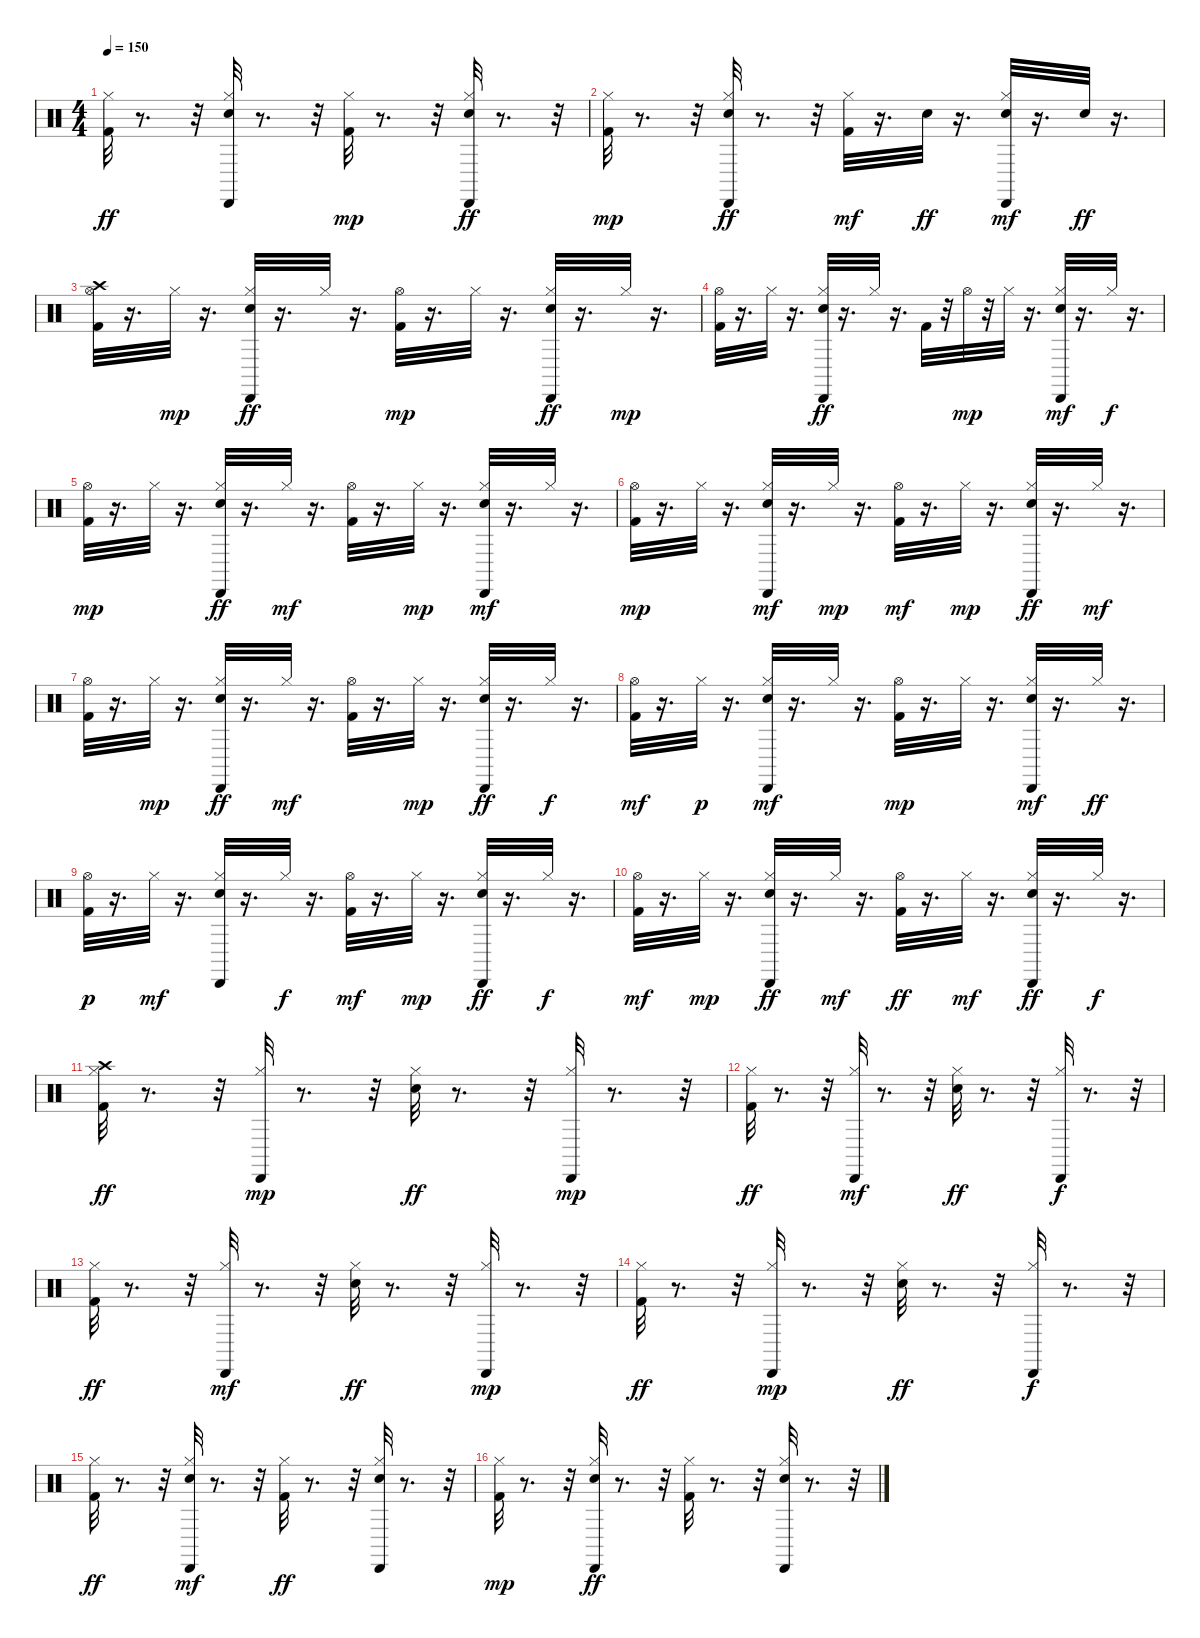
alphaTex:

\track "" {instrument percussion}
\staff {score}
\articulation defaults
\ts (4 4)
\tempo 150
\clef neutral
\ks c
("Kick (hit) 2" "Hi-Hat (closed)").32{dy ff} r.8{d} r.32 ("Hi-Hat (closed)" "Snare (hit) 2" "Cabasa (hit)").32 r.8{d} r.32 ("Kick (hit) 2" "Hi-Hat (closed)").32{dy mp} r.8{d} r.32 ("Hi-Hat (closed)" "Snare (hit) 2" "Cabasa (hit)").32{dy ff} r.8{d} r.32 |
("Kick (hit) 2" "Hi-Hat (closed)").32{dy mp} r.8{d} r.32 ("Hi-Hat (closed)" "Snare (hit) 2" "Cabasa (hit)").32{dy ff} r.8{d} r.32 ("Kick (hit) 2" "Hi-Hat (closed)").32{dy mf} r.16{d} "Snare (hit) 2".32{dy ff} r.16{d} ("Hi-Hat (closed)" "Snare (hit) 2" "Cabasa (hit)").32{dy mf} r.16{d} "Snare (hit) 2".32{dy ff} r.16{d} |
("Kick (hit) 2" "Hi-Hat (open)" "Crash high (hit)").32 r.16{d} "Hi-Hat (closed)".32{dy mp} r.16{d} ("Hi-Hat (closed)" "Snare (hit) 2" "Cabasa (hit)").32{dy ff} r.16{d} "Hi-Hat (closed)".32 r.16{d} ("Kick (hit) 2" "Hi-Hat (open)").32{dy mp} r.16{d} "Hi-Hat (closed)".32 r.16{d} ("Hi-Hat (closed)" "Snare (hit) 2" "Cabasa (hit)").32{dy ff} r.16{d} "Hi-Hat (closed)".32{dy mp} r.16{d} |
("Kick (hit) 2" "Hi-Hat (open)").32 r.16{d} "Hi-Hat (closed)".32 r.16{d} ("Hi-Hat (closed)" "Snare (hit) 2" "Cabasa (hit)").32{dy ff} r.16{d} "Hi-Hat (closed)".32 r.16{d} "Kick (hit) 2".32 r.32 "Hi-Hat (open)".32{dy mp} r.32 "Hi-Hat (closed)".32 r.16{d} ("Hi-Hat (closed)" "Snare (hit) 2" "Cabasa (hit)").32{dy mf} r.16{d} "Hi-Hat (closed)".32{dy f} r.16{d} |
("Kick (hit) 2" "Hi-Hat (open)").32{dy mp} r.16{d} "Hi-Hat (closed)".32 r.16{d} ("Hi-Hat (closed)" "Snare (hit) 2" "Cabasa (hit)").32{dy ff} r.16{d} "Hi-Hat (closed)".32{dy mf} r.16{d} ("Kick (hit) 2" "Hi-Hat (open)").32 r.16{d} "Hi-Hat (closed)".32{dy mp} r.16{d} ("Hi-Hat (closed)" "Snare (hit) 2" "Cabasa (hit)").32{dy mf} r.16{d} "Hi-Hat (closed)".32 r.16{d} |
("Kick (hit) 2" "Hi-Hat (open)").32{dy mp} r.16{d} "Hi-Hat (closed)".32 r.16{d} ("Hi-Hat (closed)" "Snare (hit) 2" "Cabasa (hit)").32{dy mf} r.16{d} "Hi-Hat (closed)".32{dy mp} r.16{d} ("Kick (hit) 2" "Hi-Hat (open)").32{dy mf} r.16{d} "Hi-Hat (closed)".32{dy mp} r.16{d} ("Hi-Hat (closed)" "Snare (hit) 2" "Cabasa (hit)").32{dy ff} r.16{d} "Hi-Hat (closed)".32{dy mf} r.16{d} |
("Kick (hit) 2" "Hi-Hat (open)").32 r.16{d} "Hi-Hat (closed)".32{dy mp} r.16{d} ("Hi-Hat (closed)" "Snare (hit) 2" "Cabasa (hit)").32{dy ff} r.16{d} "Hi-Hat (closed)".32{dy mf} r.16{d} ("Kick (hit) 2" "Hi-Hat (open)").32 r.16{d} "Hi-Hat (closed)".32{dy mp} r.16{d} ("Hi-Hat (closed)" "Snare (hit) 2" "Cabasa (hit)").32{dy ff} r.16{d} "Hi-Hat (closed)".32{dy f} r.16{d} |
("Kick (hit) 2" "Hi-Hat (open)").32{dy mf} r.16{d} "Hi-Hat (closed)".32{dy p} r.16{d} ("Hi-Hat (closed)" "Snare (hit) 2" "Cabasa (hit)").32{dy mf} r.16{d} "Hi-Hat (closed)".32 r.16{d} ("Kick (hit) 2" "Hi-Hat (open)").32{dy mp} r.16{d} "Hi-Hat (closed)".32 r.16{d} ("Hi-Hat (closed)" "Snare (hit) 2" "Cabasa (hit)").32{dy mf} r.16{d} "Hi-Hat (closed)".32{dy ff} r.16{d} |
("Kick (hit) 2" "Hi-Hat (open)").32{dy p} r.16{d} "Hi-Hat (closed)".32{dy mf} r.16{d} ("Hi-Hat (closed)" "Snare (hit) 2" "Cabasa (hit)").32 r.16{d} "Hi-Hat (closed)".32{dy f} r.16{d} ("Kick (hit) 2" "Hi-Hat (open)").32{dy mf} r.16{d} "Hi-Hat (closed)".32{dy mp} r.16{d} ("Hi-Hat (closed)" "Snare (hit) 2" "Cabasa (hit)").32{dy ff} r.16{d} "Hi-Hat (closed)".32{dy f} r.16{d} |
("Kick (hit) 2" "Hi-Hat (open)").32{dy mf} r.16{d} "Hi-Hat (closed)".32{dy mp} r.16{d} ("Hi-Hat (closed)" "Snare (hit) 2" "Cabasa (hit)").32{dy ff} r.16{d} "Hi-Hat (closed)".32{dy mf} r.16{d} ("Kick (hit) 2" "Hi-Hat (open)").32{dy ff} r.16{d} "Hi-Hat (closed)".32{dy mf} r.16{d} ("Hi-Hat (closed)" "Snare (hit) 2" "Cabasa (hit)").32{dy ff} r.16{d} "Hi-Hat (closed)".32{dy f} r.16{d} |
("Kick (hit) 2" "Hi-Hat (closed)" "Crash high (hit)").32{dy ff} r.8{d} r.32 ("Hi-Hat (closed)" "Cabasa (hit)").32{dy mp} r.8{d} r.32 ("Hi-Hat (closed)" "Snare (hit) 2").32{dy ff} r.8{d} r.32 ("Hi-Hat (closed)" "Cabasa (hit)").32{dy mp} r.8{d} r.32 |
("Kick (hit) 2" "Hi-Hat (closed)").32{dy ff} r.8{d} r.32 ("Hi-Hat (closed)" "Cabasa (hit)").32{dy mf} r.8{d} r.32 ("Hi-Hat (closed)" "Snare (hit) 2").32{dy ff} r.8{d} r.32 ("Hi-Hat (closed)" "Cabasa (hit)").32{dy f} r.8{d} r.32 |
("Kick (hit) 2" "Hi-Hat (closed)").32{dy ff} r.8{d} r.32 ("Hi-Hat (closed)" "Cabasa (hit)").32{dy mf} r.8{d} r.32 ("Hi-Hat (closed)" "Snare (hit) 2").32{dy ff} r.8{d} r.32 ("Hi-Hat (closed)" "Cabasa (hit)").32{dy mp} r.8{d} r.32 |
("Kick (hit) 2" "Hi-Hat (closed)").32{dy ff} r.8{d} r.32 ("Hi-Hat (closed)" "Cabasa (hit)").32{dy mp} r.8{d} r.32 ("Hi-Hat (closed)" "Snare (hit) 2").32{dy ff} r.8{d} r.32 ("Hi-Hat (closed)" "Cabasa (hit)").32{dy f} r.8{d} r.32 |
("Kick (hit) 2" "Hi-Hat (closed)").32{dy ff} r.8{d} r.32 ("Hi-Hat (closed)" "Snare (hit) 2" "Cabasa (hit)").32{dy mf} r.8{d} r.32 ("Kick (hit) 2" "Hi-Hat (closed)").32{dy ff} r.8{d} r.32 ("Hi-Hat (closed)" "Snare (hit) 2" "Cabasa (hit)").32 r.8{d} r.32 |
("Kick (hit) 2" "Hi-Hat (closed)").32{dy mp} r.8{d} r.32 ("Hi-Hat (closed)" "Snare (hit) 2" "Cabasa (hit)").32{dy ff} r.8{d} r.32 ("Kick (hit) 2" "Hi-Hat (closed)").32 r.8{d} r.32 ("Hi-Hat (closed)" "Snare (hit) 2" "Cabasa (hit)").32 r.8{d} r.32
